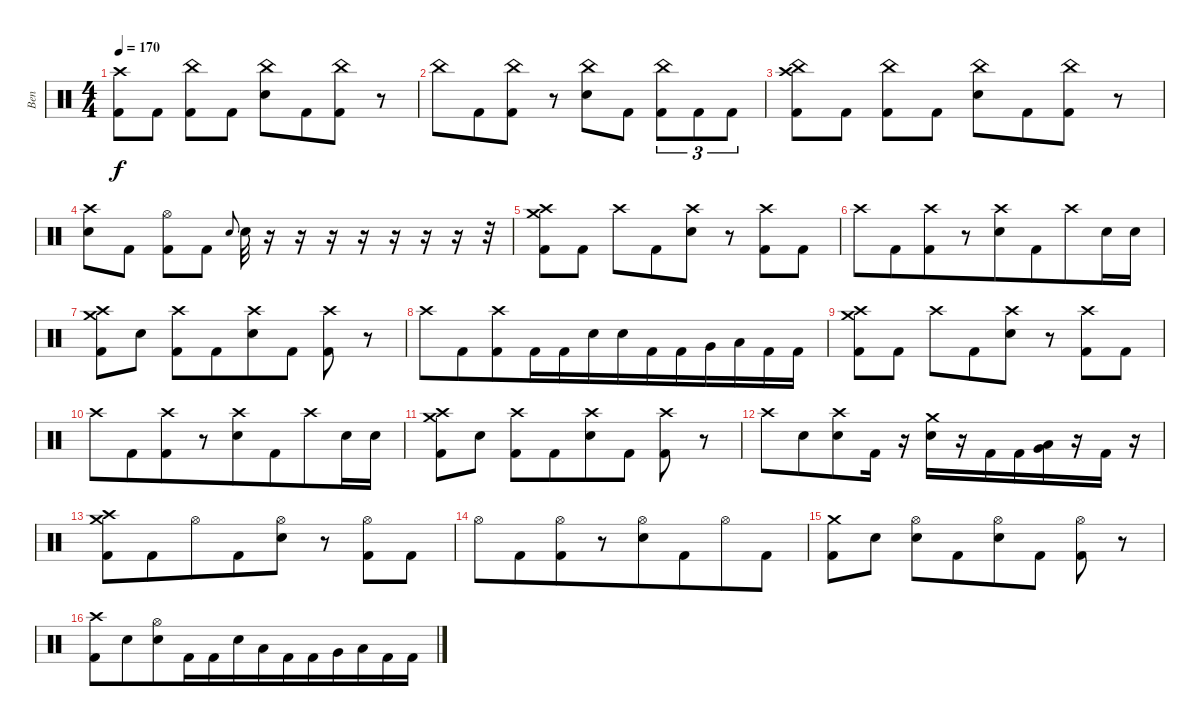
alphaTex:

\track ("Ben" "Ben") {instrument percussion}
\staff {score}
\articulation defaults
\ts (4 4)
\tempo 170
\clef neutral
\ks c
("Kick (hit) 2" "Crash high (hit)").8{dy f} "Kick (hit) 2".8 ("China (hit)" "Kick (hit) 2").8 "Kick (hit) 2".8 ("Electric Snare (hit)" "China (hit)").8 "Kick (hit) 2".8{beam merge} ("Kick (hit) 2" "China (hit)").8{beam merge} r.8 |
"China (hit)".8 "Kick (hit) 2".8{beam merge} ("China (hit)" "Kick (hit) 2").8 r.8 ("China (hit)" "Electric Snare (hit)").8{beam merge} "Kick (hit) 2".8 ("China (hit)" "Kick (hit) 2").8{tu (3 2) beam merge} "Kick (hit) 2".8{tu (3 2) beam merge} "Kick (hit) 2".8{tu (3 2)} |
("China (hit)" "Kick (hit) 2" "Crash high (hit)").8 "Kick (hit) 2".8 ("Kick (hit) 2" "China (hit)").8 "Kick (hit) 2".8 ("Electric Snare (hit)" "China (hit)").8 "Kick (hit) 2".8{beam merge} ("Kick (hit) 2" "China (hit)").8{beam merge} r.8 |
("Crash high (hit)" "Electric Snare (hit)").8{beam merge} "Kick (hit) 2".8 ("Hi-Hat (open)" "Kick (hit) 2").8{beam merge} "Kick (hit) 2".8 "Electric Snare (hit)".8{gr onbeat beam merge} "Electric Snare (hit)".32 r.16 r.16{beam merge} r.16{beam merge} r.16 r.16 r.16{beam merge} r.16{beam merge} r.32 |
("Kick (hit) 2" "Crash high (hit)" "Crash medium (hit)").8{beam merge} "Kick (hit) 2".8 "Crash high (hit)".8 "Kick (hit) 2".8{beam merge} ("Electric Snare (hit)" "Crash high (hit)").8 r.8 ("Kick (hit) 2" "Crash high (hit)").8{beam merge} "Kick (hit) 2".8 |
"Crash high (hit)".8{beam merge} "Kick (hit) 2".8{beam merge} ("Kick (hit) 2" "Crash high (hit)").8{beam merge} r.8{beam merge} ("Electric Snare (hit)" "Crash high (hit)").8{beam merge} "Kick (hit) 2".8{beam merge} "Crash high (hit)".8 "Electric Snare (hit)".16{beam merge} "Electric Snare (hit)".16 |
("Kick (hit) 2" "Crash high (hit)" "Crash medium (hit)").8{beam merge} "Electric Snare (hit)".8 ("Kick (hit) 2" "Crash high (hit)").8 "Kick (hit) 2".8{beam merge} ("Electric Snare (hit)" "Crash high (hit)").8 "Kick (hit) 2".8 ("Kick (hit) 2" "Crash high (hit)").8{beam merge} r.8 |
"Crash high (hit)".8{beam merge} "Kick (hit) 2".8{beam merge} ("Kick (hit) 2" "Crash high (hit)").8 "Kick (hit) 2".16 "Kick (hit) 2".16{beam merge} "Electric Snare (hit)".16{beam merge} "Electric Snare (hit)".16 "Kick (hit) 2".16 "Kick (hit) 2".16{beam merge} "Very Low Tom (hit)".16 "Low Floor Tom (hit)".16{beam merge} "Kick (hit) 2".16{beam merge} "Kick (hit) 2".16 |
("Kick (hit) 2" "Crash high (hit)" "Crash medium (hit)").8{beam merge} "Kick (hit) 2".8 "Crash high (hit)".8 "Kick (hit) 2".8{beam merge} ("Electric Snare (hit)" "Crash high (hit)").8 r.8 ("Kick (hit) 2" "Crash high (hit)").8{beam merge} "Kick (hit) 2".8 |
"Crash high (hit)".8{beam merge} "Kick (hit) 2".8{beam merge} ("Kick (hit) 2" "Crash high (hit)").8{beam merge} r.8{beam merge} ("Electric Snare (hit)" "Crash high (hit)").8{beam merge} "Kick (hit) 2".8{beam merge} "Crash high (hit)".8 "Electric Snare (hit)".16{beam merge} "Electric Snare (hit)".16 |
("Kick (hit) 2" "Crash high (hit)" "Crash medium (hit)").8{beam merge} "Electric Snare (hit)".8 ("Kick (hit) 2" "Crash high (hit)").8 "Kick (hit) 2".8{beam merge} ("Electric Snare (hit)" "Crash high (hit)").8 "Kick (hit) 2".8 ("Kick (hit) 2" "Crash high (hit)").8{beam merge} r.8 |
"Crash high (hit)".8{beam merge} "Electric Snare (hit)".8{beam merge} ("Electric Snare (hit)" "Crash high (hit)").8 "Kick (hit) 2".16 r.16{beam merge} ("Electric Snare (hit)" "Crash medium (hit)").16{beam merge} r.16 "Kick (hit) 2".16 "Kick (hit) 2".16{beam merge} ("Low Floor Tom (hit)" "Very Low Tom (hit)").16 r.16{beam merge} "Kick (hit) 2".16{beam merge} r.16 |
("Kick (hit) 2" "Crash high (hit)" "Crash medium (hit)").8 "Kick (hit) 2".8{beam merge} "Hi-Hat (open)".8 "Kick (hit) 2".8{beam merge} ("Electric Snare (hit)" "Hi-Hat (open)").8 r.8 ("Kick (hit) 2" "Hi-Hat (open)").8{beam merge} "Kick (hit) 2".8 |
"Hi-Hat (open)".8{beam merge} "Kick (hit) 2".8{beam merge} ("Kick (hit) 2" "Hi-Hat (open)").8{beam merge} r.8{beam merge} ("Electric Snare (hit)" "Hi-Hat (open)").8{beam merge} "Kick (hit) 2".8{beam merge} "Hi-Hat (open)".8 "Kick (hit) 2".8 |
("Kick (hit) 2" "Crash medium (hit)").8{beam merge} "Electric Snare (hit)".8 ("Electric Snare (hit)" "Hi-Hat (open)").8 "Kick (hit) 2".8{beam merge} ("Electric Snare (hit)" "Hi-Hat (open)").8 "Kick (hit) 2".8 ("Kick (hit) 2" "Hi-Hat (open)").8{beam merge} r.8 |
("Crash high (hit)" "Kick (hit) 2").8{beam merge} "Electric Snare (hit)".8{beam merge} ("Electric Snare (hit)" "Hi-Hat (open)").8 "Kick (hit) 2".16 "Kick (hit) 2".16{beam merge} "Electric Snare (hit)".16{beam merge} "Low Floor Tom (hit)".16 "Kick (hit) 2".16 "Kick (hit) 2".16{beam merge} "Very Low Tom (hit)".16 "Low Floor Tom (hit)".16{beam merge} "Kick (hit) 2".16{beam merge} "Kick (hit) 2".16
